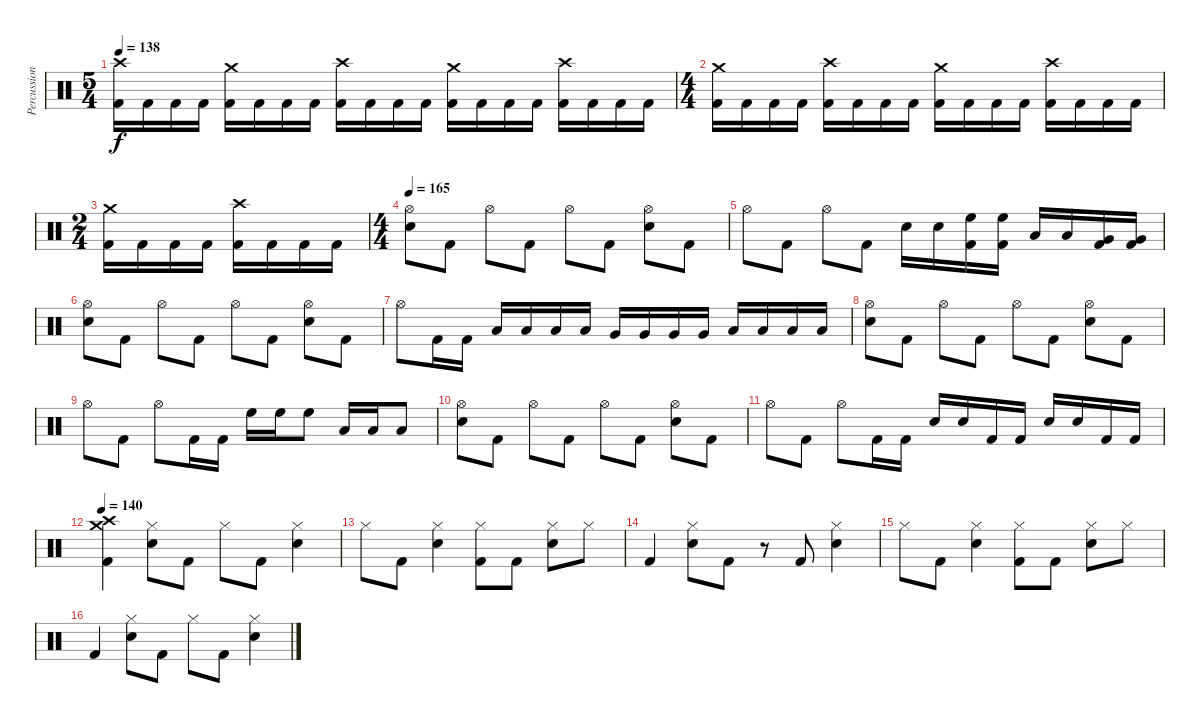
\track ("Percussion" "Percussion") {instrument percussion}
\staff {score}
\articulation defaults
\ts (5 4)
\tempo 138
\clef neutral
\ks c
("Kick (hit) 2" "Crash high (hit)").16{dy f} "Kick (hit) 2".16 "Kick (hit) 2".16 "Kick (hit) 2".16 ("Kick (hit) 2" "Crash medium (hit)").16 "Kick (hit) 2".16 "Kick (hit) 2".16 "Kick (hit) 2".16 ("Kick (hit) 2" "Crash high (hit)").16 "Kick (hit) 2".16 "Kick (hit) 2".16 "Kick (hit) 2".16 ("Kick (hit) 2" "Crash medium (hit)").16 "Kick (hit) 2".16 "Kick (hit) 2".16 "Kick (hit) 2".16 ("Kick (hit) 2" "Crash high (hit)").16 "Kick (hit) 2".16 "Kick (hit) 2".16 "Kick (hit) 2".16 |
\ts (4 4)
("Kick (hit) 2" "Crash medium (hit)").16 "Kick (hit) 2".16 "Kick (hit) 2".16 "Kick (hit) 2".16 ("Kick (hit) 2" "Crash high (hit)").16 "Kick (hit) 2".16 "Kick (hit) 2".16 "Kick (hit) 2".16 ("Kick (hit) 2" "Crash medium (hit)").16 "Kick (hit) 2".16 "Kick (hit) 2".16 "Kick (hit) 2".16 ("Kick (hit) 2" "Crash high (hit)").16 "Kick (hit) 2".16 "Kick (hit) 2".16 "Kick (hit) 2".16 |
\ts (2 4)
("Kick (hit) 2" "Crash medium (hit)").16 "Kick (hit) 2".16 "Kick (hit) 2".16 "Kick (hit) 2".16 ("Kick (hit) 2" "Crash high (hit)").16 "Kick (hit) 2".16 "Kick (hit) 2".16 "Kick (hit) 2".16 |
\ts (4 4)
\tempo 165
("Snare (hit) 2" "Hi-Hat (open)").8 "Kick (hit) 2".8 "Hi-Hat (open)".8 "Kick (hit) 2".8 "Hi-Hat (open)".8 "Kick (hit) 2".8 ("Snare (hit) 2" "Hi-Hat (open)").8 "Kick (hit) 2".8 |
"Hi-Hat (open)".8 "Kick (hit) 2".8 "Hi-Hat (open)".8 "Kick (hit) 2".8 "Snare (hit) 2".16 "Snare (hit) 2".16 ("Kick (hit) 2" "High Floor Tom (hit)").16 ("Kick (hit) 2" "High Floor Tom (hit)").16 "Low Tom (hit)".16 "Low Tom (hit)".16 ("Kick (hit) 2" "Very Low Tom (hit)").16 ("Kick (hit) 2" "Very Low Tom (hit)").16 |
("Snare (hit) 2" "Hi-Hat (open)").8 "Kick (hit) 2".8 "Hi-Hat (open)".8 "Kick (hit) 2".8 "Hi-Hat (open)".8 "Kick (hit) 2".8 ("Snare (hit) 2" "Hi-Hat (open)").8 "Kick (hit) 2".8 |
"Hi-Hat (open)".8 "Kick (hit) 2".16 "Kick (hit) 2".16 "Low Tom (hit)".16 "Low Tom (hit)".16 "Low Tom (hit)".16 "Low Tom (hit)".16 "Very Low Tom (hit)".16 "Very Low Tom (hit)".16 "Very Low Tom (hit)".16 "Very Low Tom (hit)".16 "Low Floor Tom (hit)".16 "Low Floor Tom (hit)".16 "Low Floor Tom (hit)".16 "Low Floor Tom (hit)".16 |
("Snare (hit) 2" "Hi-Hat (open)").8 "Kick (hit) 2".8 "Hi-Hat (open)".8 "Kick (hit) 2".8 "Hi-Hat (open)".8 "Kick (hit) 2".8 ("Snare (hit) 2" "Hi-Hat (open)").8 "Kick (hit) 2".8 |
"Hi-Hat (open)".8 "Kick (hit) 2".8 "Hi-Hat (open)".8 "Kick (hit) 2".16 "Kick (hit) 2".16 "High Floor Tom (hit)".16 "High Floor Tom (hit)".16 "High Floor Tom (hit)".8 "Low Tom (hit)".16 "Low Tom (hit)".16 "Low Tom (hit)".8 |
("Snare (hit) 2" "Hi-Hat (open)").8 "Kick (hit) 2".8 "Hi-Hat (open)".8 "Kick (hit) 2".8 "Hi-Hat (open)".8 "Kick (hit) 2".8 ("Snare (hit) 2" "Hi-Hat (open)").8 "Kick (hit) 2".8 |
"Hi-Hat (open)".8 "Kick (hit) 2".8 "Hi-Hat (open)".8 "Kick (hit) 2".16 "Kick (hit) 2".16 "Snare (hit) 2".16 "Snare (hit) 2".16 "Kick (hit) 2".16 "Kick (hit) 2".16 "Snare (hit) 2".16 "Snare (hit) 2".16 "Kick (hit) 2".16 "Kick (hit) 2".16 |
\tempo 140
("Kick (hit) 2" "Crash high (hit)" "Crash medium (hit)").4 ("Snare (hit) 2" "Hi-Hat (closed)").8 "Kick (hit) 2".8 "Hi-Hat (closed)".8 "Kick (hit) 2".8 ("Snare (hit) 2" "Hi-Hat (closed)").4 |
"Hi-Hat (closed)".8 "Kick (hit) 2".8 ("Snare (hit) 2" "Hi-Hat (closed)").4 ("Kick (hit) 2" "Hi-Hat (closed)").8 "Kick (hit) 2".8 ("Snare (hit) 2" "Hi-Hat (closed)").8 "Hi-Hat (closed)".8 |
"Kick (hit) 2".4 ("Snare (hit) 2" "Hi-Hat (closed)").8 "Kick (hit) 2".8 r.8 "Kick (hit) 2".8 ("Snare (hit) 2" "Hi-Hat (closed)").4 |
"Hi-Hat (closed)".8 "Kick (hit) 2".8 ("Snare (hit) 2" "Hi-Hat (closed)").4 ("Kick (hit) 2" "Hi-Hat (closed)").8 "Kick (hit) 2".8 ("Snare (hit) 2" "Hi-Hat (closed)").8 "Hi-Hat (closed)".8 |
"Kick (hit) 2".4 ("Snare (hit) 2" "Hi-Hat (closed)").8 "Kick (hit) 2".8 "Hi-Hat (closed)".8 "Kick (hit) 2".8 ("Snare (hit) 2" "Hi-Hat (closed)").4
